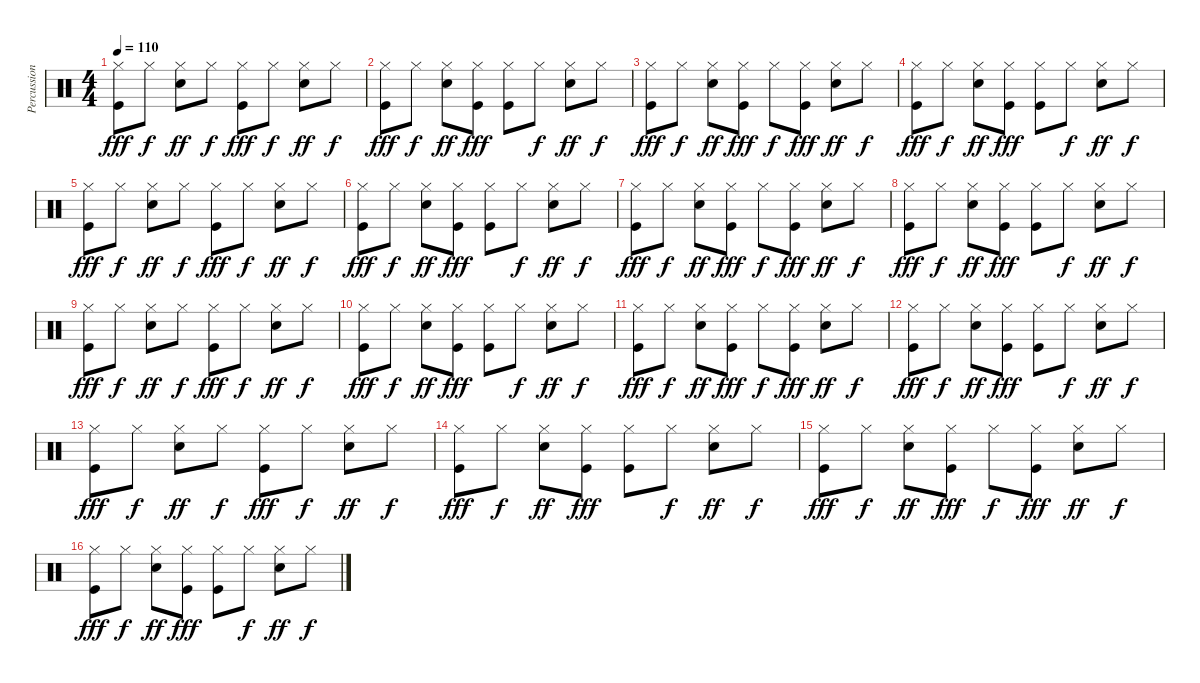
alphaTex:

\track ("Percussion" "Percussion") {instrument percussion}
\staff {score}
\articulation defaults
\ts (4 4)
\tempo 110
\clef neutral
\ks c
("Kick (hit)" "Hi-Hat (closed)").8{dy fff} "Hi-Hat (closed)".8{dy f} ("Snare (hit) 2" "Hi-Hat (closed)").8{dy ff} "Hi-Hat (closed)".8{dy f} ("Kick (hit)" "Hi-Hat (closed)").8{dy fff} "Hi-Hat (closed)".8{dy f} ("Snare (hit) 2" "Hi-Hat (closed)").8{dy ff} "Hi-Hat (closed)".8{dy f} |
("Kick (hit)" "Hi-Hat (closed)").8{dy fff} "Hi-Hat (closed)".8{dy f} ("Snare (hit) 2" "Hi-Hat (closed)").8{dy ff} ("Kick (hit)" "Hi-Hat (closed)").8{dy fff} ("Kick (hit)" "Hi-Hat (closed)").8 "Hi-Hat (closed)".8{dy f} ("Snare (hit) 2" "Hi-Hat (closed)").8{dy ff} "Hi-Hat (closed)".8{dy f} |
("Kick (hit)" "Hi-Hat (closed)").8{dy fff} "Hi-Hat (closed)".8{dy f} ("Snare (hit) 2" "Hi-Hat (closed)").8{dy ff} ("Kick (hit)" "Hi-Hat (closed)").8{dy fff} "Hi-Hat (closed)".8{dy f} ("Kick (hit)" "Hi-Hat (closed)").8{dy fff} ("Snare (hit) 2" "Hi-Hat (closed)").8{dy ff} "Hi-Hat (closed)".8{dy f} |
("Kick (hit)" "Hi-Hat (closed)").8{dy fff} "Hi-Hat (closed)".8{dy f} ("Snare (hit) 2" "Hi-Hat (closed)").8{dy ff} ("Kick (hit)" "Hi-Hat (closed)").8{dy fff} ("Kick (hit)" "Hi-Hat (closed)").8 "Hi-Hat (closed)".8{dy f} ("Snare (hit) 2" "Hi-Hat (closed)").8{dy ff} "Hi-Hat (closed)".8{dy f} |
("Kick (hit)" "Hi-Hat (closed)").8{dy fff} "Hi-Hat (closed)".8{dy f} ("Snare (hit) 2" "Hi-Hat (closed)").8{dy ff} "Hi-Hat (closed)".8{dy f} ("Kick (hit)" "Hi-Hat (closed)").8{dy fff} "Hi-Hat (closed)".8{dy f} ("Snare (hit) 2" "Hi-Hat (closed)").8{dy ff} "Hi-Hat (closed)".8{dy f} |
("Kick (hit)" "Hi-Hat (closed)").8{dy fff} "Hi-Hat (closed)".8{dy f} ("Snare (hit) 2" "Hi-Hat (closed)").8{dy ff} ("Kick (hit)" "Hi-Hat (closed)").8{dy fff} ("Kick (hit)" "Hi-Hat (closed)").8 "Hi-Hat (closed)".8{dy f} ("Snare (hit) 2" "Hi-Hat (closed)").8{dy ff} "Hi-Hat (closed)".8{dy f} |
("Kick (hit)" "Hi-Hat (closed)").8{dy fff} "Hi-Hat (closed)".8{dy f} ("Snare (hit) 2" "Hi-Hat (closed)").8{dy ff} ("Kick (hit)" "Hi-Hat (closed)").8{dy fff} "Hi-Hat (closed)".8{dy f} ("Kick (hit)" "Hi-Hat (closed)").8{dy fff} ("Snare (hit) 2" "Hi-Hat (closed)").8{dy ff} "Hi-Hat (closed)".8{dy f} |
("Kick (hit)" "Hi-Hat (closed)").8{dy fff} "Hi-Hat (closed)".8{dy f} ("Snare (hit) 2" "Hi-Hat (closed)").8{dy ff} ("Kick (hit)" "Hi-Hat (closed)").8{dy fff} ("Kick (hit)" "Hi-Hat (closed)").8 "Hi-Hat (closed)".8{dy f} ("Snare (hit) 2" "Hi-Hat (closed)").8{dy ff} "Hi-Hat (closed)".8{dy f} |
("Kick (hit)" "Hi-Hat (closed)").8{dy fff} "Hi-Hat (closed)".8{dy f} ("Snare (hit) 2" "Hi-Hat (closed)").8{dy ff} "Hi-Hat (closed)".8{dy f} ("Kick (hit)" "Hi-Hat (closed)").8{dy fff} "Hi-Hat (closed)".8{dy f} ("Snare (hit) 2" "Hi-Hat (closed)").8{dy ff} "Hi-Hat (closed)".8{dy f} |
("Kick (hit)" "Hi-Hat (closed)").8{dy fff} "Hi-Hat (closed)".8{dy f} ("Snare (hit) 2" "Hi-Hat (closed)").8{dy ff} ("Kick (hit)" "Hi-Hat (closed)").8{dy fff} ("Kick (hit)" "Hi-Hat (closed)").8 "Hi-Hat (closed)".8{dy f} ("Snare (hit) 2" "Hi-Hat (closed)").8{dy ff} "Hi-Hat (closed)".8{dy f} |
("Kick (hit)" "Hi-Hat (closed)").8{dy fff} "Hi-Hat (closed)".8{dy f} ("Snare (hit) 2" "Hi-Hat (closed)").8{dy ff} ("Kick (hit)" "Hi-Hat (closed)").8{dy fff} "Hi-Hat (closed)".8{dy f} ("Kick (hit)" "Hi-Hat (closed)").8{dy fff} ("Snare (hit) 2" "Hi-Hat (closed)").8{dy ff} "Hi-Hat (closed)".8{dy f} |
("Kick (hit)" "Hi-Hat (closed)").8{dy fff} "Hi-Hat (closed)".8{dy f} ("Snare (hit) 2" "Hi-Hat (closed)").8{dy ff} ("Kick (hit)" "Hi-Hat (closed)").8{dy fff} ("Kick (hit)" "Hi-Hat (closed)").8 "Hi-Hat (closed)".8{dy f} ("Snare (hit) 2" "Hi-Hat (closed)").8{dy ff} "Hi-Hat (closed)".8{dy f} |
("Kick (hit)" "Hi-Hat (closed)").8{dy fff} "Hi-Hat (closed)".8{dy f} ("Snare (hit) 2" "Hi-Hat (closed)").8{dy ff} "Hi-Hat (closed)".8{dy f} ("Kick (hit)" "Hi-Hat (closed)").8{dy fff} "Hi-Hat (closed)".8{dy f} ("Snare (hit) 2" "Hi-Hat (closed)").8{dy ff} "Hi-Hat (closed)".8{dy f} |
("Kick (hit)" "Hi-Hat (closed)").8{dy fff} "Hi-Hat (closed)".8{dy f} ("Snare (hit) 2" "Hi-Hat (closed)").8{dy ff} ("Kick (hit)" "Hi-Hat (closed)").8{dy fff} ("Kick (hit)" "Hi-Hat (closed)").8 "Hi-Hat (closed)".8{dy f} ("Snare (hit) 2" "Hi-Hat (closed)").8{dy ff} "Hi-Hat (closed)".8{dy f} |
("Kick (hit)" "Hi-Hat (closed)").8{dy fff} "Hi-Hat (closed)".8{dy f} ("Snare (hit) 2" "Hi-Hat (closed)").8{dy ff} ("Kick (hit)" "Hi-Hat (closed)").8{dy fff} "Hi-Hat (closed)".8{dy f} ("Kick (hit)" "Hi-Hat (closed)").8{dy fff} ("Snare (hit) 2" "Hi-Hat (closed)").8{dy ff} "Hi-Hat (closed)".8{dy f} |
("Kick (hit)" "Hi-Hat (closed)").8{dy fff} "Hi-Hat (closed)".8{dy f} ("Snare (hit) 2" "Hi-Hat (closed)").8{dy ff} ("Kick (hit)" "Hi-Hat (closed)").8{dy fff} ("Kick (hit)" "Hi-Hat (closed)").8 "Hi-Hat (closed)".8{dy f} ("Snare (hit) 2" "Hi-Hat (closed)").8{dy ff} "Hi-Hat (closed)".8{dy f}
